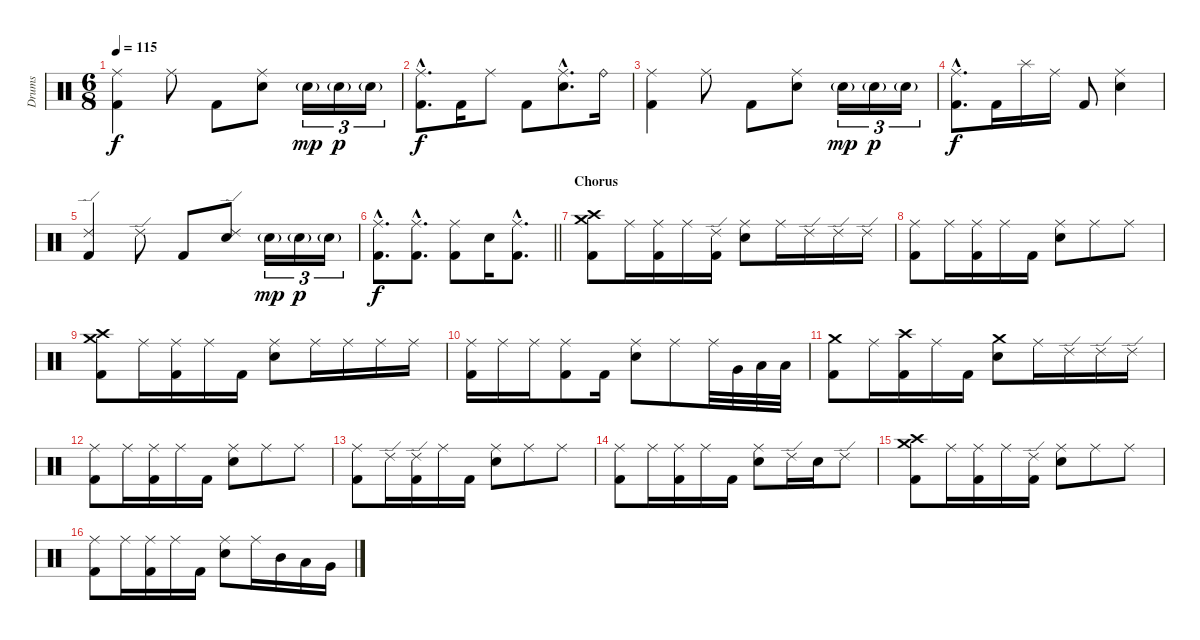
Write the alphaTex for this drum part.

\track ("Drums" "Drums") {instrument percussion}
\staff {score}
\articulation defaults
\ts (6 8)
\tempo 115
\clef neutral
\ks c
("Ride (middle)" "Kick (hit) 2").4{dy f} "Ride (middle)".8 "Kick (hit) 2".8 ("Ride (middle)" "Electric Snare (hit)").8 "Electric Snare (hit)"{g}.16{tu (3 2) dy mp} "Electric Snare (hit)"{g}.16{tu (3 2) dy p} "Electric Snare (hit)"{g}.16{tu (3 2)} |
("Ride (middle)"{hac} "Kick (hit) 2"{hac}).8{d dy f} "Kick (hit) 2".16 "Ride (middle)".8 "Kick (hit) 2".8 ("Ride (middle)"{hac} "Electric Snare (hit)"{hac}).8{d} "Ride (bell)".16 |
("Ride (middle)" "Kick (hit) 2").4 "Ride (middle)".8 "Kick (hit) 2".8 ("Ride (middle)" "Electric Snare (hit)").8 "Electric Snare (hit)"{g}.16{tu (3 2) dy mp} "Electric Snare (hit)"{g}.16{tu (3 2) dy p} "Electric Snare (hit)"{g}.16{tu (3 2)} |
("Ride (middle)"{hac} "Kick (hit) 2"{hac}).8{d dy f} "Kick (hit) 2".16 "Splash (hit)".16 "Ride (middle)".16 "Kick (hit) 2".8 ("Ride (middle)" "Electric Snare (hit)").4 |
("Ride (edge) 2" "Kick (hit) 2").4{volume 16} "Ride (edge) 2".8 "Kick (hit) 2".8 ("Ride (edge) 2" "Electric Snare (hit)").8 "Electric Snare (hit)"{g}.16{tu (3 2) dy mp} "Electric Snare (hit)"{g}.16{tu (3 2) dy p} "Electric Snare (hit)"{g}.16{tu (3 2)} |
\barLineRight lightlight
("Ride (middle)"{hac} "Kick (hit) 2"{hac}).8{d dy f} ("Ride (middle)"{hac} "Kick (hit) 2"{hac}).8{d} ("Ride (middle)" "Kick (hit) 2").8 "Electric Snare (hit)".16 ("Ride (middle)"{hac} "Kick (hit) 2"{hac}).8{d} |
\section ("" "Chorus")
("Crash medium (hit)" "Crash high (hit)" "Kick (hit) 2").8 "Ride (middle)".16 ("Ride (middle)" "Kick (hit) 2").16 "Ride (middle)".16 ("Ride (edge) 2" "Kick (hit) 2").16 ("Ride (middle)" "Electric Snare (hit)").8 "Ride (middle)".16 "Ride (edge) 2".16 "Ride (edge) 2".16 "Ride (edge) 2".16 |
("Ride (middle)" "Kick (hit) 2").8 "Ride (middle)".16 ("Ride (middle)" "Kick (hit) 2").16 "Ride (middle)".16 "Kick (hit) 2".16 ("Ride (middle)" "Electric Snare (hit)").8 "Ride (middle)".8 "Ride (middle)".8 |
("Crash medium (hit)" "Crash high (hit)" "Kick (hit) 2").8 "Ride (middle)".16 ("Ride (middle)" "Kick (hit) 2").16 "Ride (middle)".16 "Kick (hit) 2".16 ("Ride (middle)" "Electric Snare (hit)").8 "Ride (middle)".16 "Ride (middle)".16 "Ride (middle)".16 "Ride (middle)".16 |
("Ride (middle)" "Kick (hit) 2").16 "Ride (middle)".16 "Ride (middle)".16 ("Ride (middle)" "Kick (hit) 2").8 "Kick (hit) 2".16 ("Ride (middle)" "Electric Snare (hit)").8 "Ride (middle)".8 "Ride (middle)".32 "Very Low Tom (hit)".32 "Low Tom (hit)".32 "Low Tom (hit)".32 |
("Crash medium (hit)" "Kick (hit) 2").8 "Ride (middle)".16 ("Crash high (hit)" "Kick (hit) 2").16 "Ride (middle)".16 "Kick (hit) 2".16 ("Crash medium (hit)" "Electric Snare (hit)").8 "Ride (middle)".16 "Ride (edge) 2".16 "Ride (edge) 2".16 "Ride (edge) 2".16 |
("Ride (middle)" "Kick (hit) 2").8 "Ride (middle)".16 ("Ride (middle)" "Kick (hit) 2").16 "Ride (middle)".16 "Kick (hit) 2".16 ("Ride (middle)" "Electric Snare (hit)").8 "Ride (middle)".8 "Ride (middle)".8 |
("Ride (middle)" "Kick (hit) 2").8 "Ride (edge) 2".16 ("Ride (edge) 2" "Kick (hit) 2").16 "Ride (middle)".16 "Kick (hit) 2".16 ("Ride (middle)" "Electric Snare (hit)").8 "Ride (middle)".8 "Ride (middle)".8 |
("Ride (middle)" "Kick (hit) 2").8 "Ride (middle)".16 ("Ride (middle)" "Kick (hit) 2").16 "Ride (middle)".16 "Kick (hit) 2".16 ("Ride (middle)" "Electric Snare (hit)").8 "Ride (edge) 2".16 "Electric Snare (hit)".16 "Ride (edge) 2".8 |
("Crash medium (hit)" "Crash high (hit)" "Kick (hit) 2").8 "Ride (middle)".16 ("Ride (middle)" "Kick (hit) 2").16 "Ride (middle)".16 ("Ride (edge) 2" "Kick (hit) 2").16 ("Ride (middle)" "Electric Snare (hit)").8 "Ride (middle)".8 "Ride (middle)".8 |
("Ride (middle)" "Kick (hit) 2").8 "Ride (middle)".16 ("Ride (middle)" "Kick (hit) 2").16 "Ride (middle)".16 "Kick (hit) 2".16 ("Ride (middle)" "Electric Snare (hit)").8 "Ride (middle)".16 "Mid Tom (hit)".16 "Low Tom (hit)".16 "Very Low Tom (hit)".16
